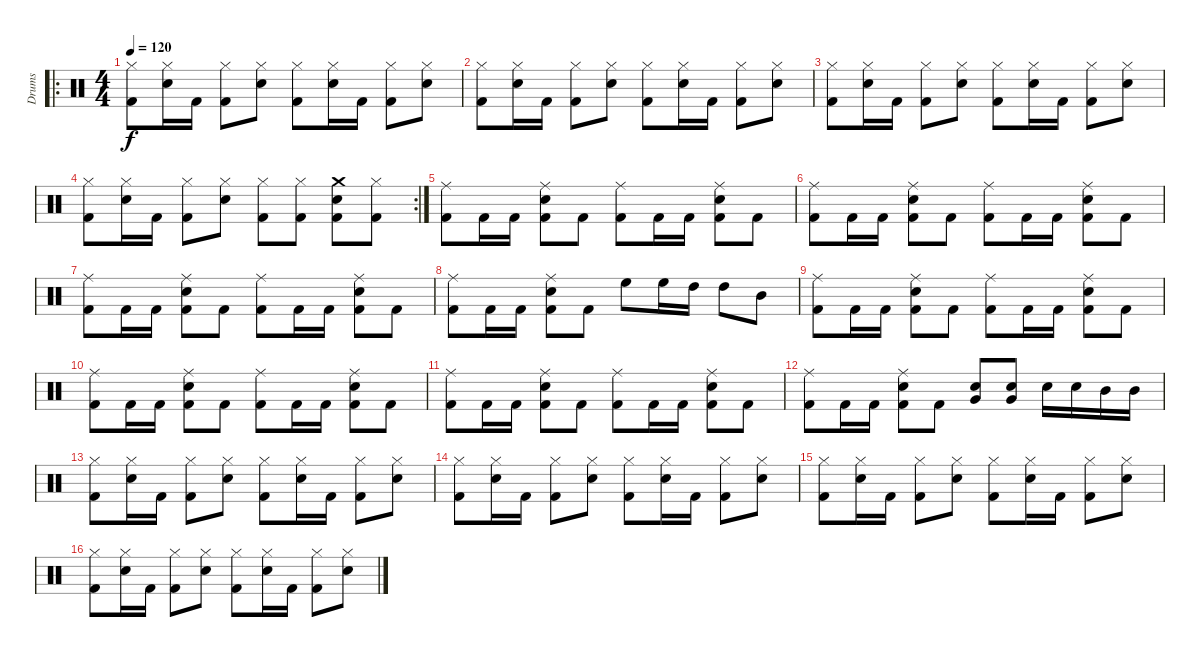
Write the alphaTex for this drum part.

\track ("Drums" "Drums") {instrument percussion}
\staff {score}
\articulation defaults
\ro
\ts (4 4)
\tempo 120
\clef neutral
\ks c
("Kick (hit) 2" "Hi-Hat (closed)").8{dy f} ("Electric Snare (hit)" "Hi-Hat (closed)").16 "Kick (hit) 2".16 ("Kick (hit) 2" "Hi-Hat (closed)").8 ("Electric Snare (hit)" "Hi-Hat (closed)").8 ("Kick (hit) 2" "Hi-Hat (closed)").8 ("Electric Snare (hit)" "Hi-Hat (closed)").16 "Kick (hit) 2".16 ("Kick (hit) 2" "Hi-Hat (closed)").8 ("Electric Snare (hit)" "Hi-Hat (closed)").8 |
("Kick (hit) 2" "Hi-Hat (closed)").8 ("Electric Snare (hit)" "Hi-Hat (closed)").16 "Kick (hit) 2".16 ("Kick (hit) 2" "Hi-Hat (closed)").8 ("Electric Snare (hit)" "Hi-Hat (closed)").8 ("Kick (hit) 2" "Hi-Hat (closed)").8 ("Electric Snare (hit)" "Hi-Hat (closed)").16 "Kick (hit) 2".16 ("Kick (hit) 2" "Hi-Hat (closed)").8 ("Electric Snare (hit)" "Hi-Hat (closed)").8 |
("Kick (hit) 2" "Hi-Hat (closed)").8 ("Electric Snare (hit)" "Hi-Hat (closed)").16 "Kick (hit) 2".16 ("Kick (hit) 2" "Hi-Hat (closed)").8 ("Electric Snare (hit)" "Hi-Hat (closed)").8 ("Kick (hit) 2" "Hi-Hat (closed)").8 ("Electric Snare (hit)" "Hi-Hat (closed)").16 "Kick (hit) 2".16 ("Kick (hit) 2" "Hi-Hat (closed)").8 ("Electric Snare (hit)" "Hi-Hat (closed)").8 |
\rc 2
("Kick (hit) 2" "Hi-Hat (closed)").8 ("Electric Snare (hit)" "Hi-Hat (closed)").16 "Kick (hit) 2".16 ("Kick (hit) 2" "Hi-Hat (closed)").8 ("Electric Snare (hit)" "Hi-Hat (closed)").8 ("Kick (hit) 2" "Hi-Hat (closed)").8 ("Kick (hit) 2" "Hi-Hat (closed)").8 ("Kick (hit) 2" "Electric Snare (hit)" "Crash medium (hit)").8 ("Kick (hit) 2" "Hi-Hat (closed)").8 |
("Kick (hit) 2" "Ride (middle)").8 "Kick (hit) 2".16 "Kick (hit) 2".16 ("Kick (hit) 2" "Electric Snare (hit)" "Ride (middle)").8 "Kick (hit) 2".8 ("Kick (hit) 2" "Ride (middle)").8 "Kick (hit) 2".16 "Kick (hit) 2".16 ("Kick (hit) 2" "Electric Snare (hit)" "Ride (middle)").8 "Kick (hit) 2".8 |
("Kick (hit) 2" "Ride (middle)").8 "Kick (hit) 2".16 "Kick (hit) 2".16 ("Kick (hit) 2" "Electric Snare (hit)" "Ride (middle)").8 "Kick (hit) 2".8 ("Kick (hit) 2" "Ride (middle)").8 "Kick (hit) 2".16 "Kick (hit) 2".16 ("Kick (hit) 2" "Electric Snare (hit)" "Ride (middle)").8 "Kick (hit) 2".8 |
("Kick (hit) 2" "Ride (middle)").8 "Kick (hit) 2".16 "Kick (hit) 2".16 ("Kick (hit) 2" "Electric Snare (hit)" "Ride (middle)").8 "Kick (hit) 2".8 ("Kick (hit) 2" "Ride (middle)").8 "Kick (hit) 2".16 "Kick (hit) 2".16 ("Kick (hit) 2" "Electric Snare (hit)" "Ride (middle)").8 "Kick (hit) 2".8 |
("Kick (hit) 2" "Ride (middle)").8 "Kick (hit) 2".16 "Kick (hit) 2".16 ("Kick (hit) 2" "Electric Snare (hit)" "Ride (middle)").8 "Kick (hit) 2".8 "High Floor Tom (hit)".8 "High Floor Tom (hit)".16 "High Tom (hit)".16 "High Tom (hit)".8 "Mid Tom (hit)".8 |
("Kick (hit) 2" "Ride (middle)").8 "Kick (hit) 2".16 "Kick (hit) 2".16 ("Kick (hit) 2" "Electric Snare (hit)" "Ride (middle)").8 "Kick (hit) 2".8 ("Kick (hit) 2" "Ride (middle)").8 "Kick (hit) 2".16 "Kick (hit) 2".16 ("Kick (hit) 2" "Electric Snare (hit)" "Ride (middle)").8 "Kick (hit) 2".8 |
("Kick (hit) 2" "Ride (middle)").8 "Kick (hit) 2".16 "Kick (hit) 2".16 ("Kick (hit) 2" "Electric Snare (hit)" "Ride (middle)").8 "Kick (hit) 2".8 ("Kick (hit) 2" "Ride (middle)").8 "Kick (hit) 2".16 "Kick (hit) 2".16 ("Kick (hit) 2" "Electric Snare (hit)" "Ride (middle)").8 "Kick (hit) 2".8 |
("Kick (hit) 2" "Ride (middle)").8 "Kick (hit) 2".16 "Kick (hit) 2".16 ("Kick (hit) 2" "Electric Snare (hit)" "Ride (middle)").8 "Kick (hit) 2".8 ("Kick (hit) 2" "Ride (middle)").8 "Kick (hit) 2".16 "Kick (hit) 2".16 ("Kick (hit) 2" "Electric Snare (hit)" "Ride (middle)").8 "Kick (hit) 2".8 |
("Kick (hit) 2" "Ride (middle)").8 "Kick (hit) 2".16 "Kick (hit) 2".16 ("Kick (hit) 2" "Electric Snare (hit)" "Ride (middle)").8 "Kick (hit) 2".8 ("Very Low Tom (hit)" "Electric Snare (hit)").8 ("Very Low Tom (hit)" "Electric Snare (hit)").8 "Electric Snare (hit)".16 "Electric Snare (hit)".16 "Mid Tom (hit)".16 "Mid Tom (hit)".16 |
("Kick (hit) 2" "Hi-Hat (closed)").8 ("Electric Snare (hit)" "Hi-Hat (closed)").16 "Kick (hit) 2".16 ("Kick (hit) 2" "Hi-Hat (closed)").8 ("Electric Snare (hit)" "Hi-Hat (closed)").8 ("Kick (hit) 2" "Hi-Hat (closed)").8 ("Electric Snare (hit)" "Hi-Hat (closed)").16 "Kick (hit) 2".16 ("Kick (hit) 2" "Hi-Hat (closed)").8 ("Electric Snare (hit)" "Hi-Hat (closed)").8 |
("Kick (hit) 2" "Hi-Hat (closed)").8 ("Electric Snare (hit)" "Hi-Hat (closed)").16 "Kick (hit) 2".16 ("Kick (hit) 2" "Hi-Hat (closed)").8 ("Electric Snare (hit)" "Hi-Hat (closed)").8 ("Kick (hit) 2" "Hi-Hat (closed)").8 ("Electric Snare (hit)" "Hi-Hat (closed)").16 "Kick (hit) 2".16 ("Kick (hit) 2" "Hi-Hat (closed)").8 ("Electric Snare (hit)" "Hi-Hat (closed)").8 |
("Kick (hit) 2" "Hi-Hat (closed)").8 ("Electric Snare (hit)" "Hi-Hat (closed)").16 "Kick (hit) 2".16 ("Kick (hit) 2" "Hi-Hat (closed)").8 ("Electric Snare (hit)" "Hi-Hat (closed)").8 ("Kick (hit) 2" "Hi-Hat (closed)").8 ("Electric Snare (hit)" "Hi-Hat (closed)").16 "Kick (hit) 2".16 ("Kick (hit) 2" "Hi-Hat (closed)").8 ("Electric Snare (hit)" "Hi-Hat (closed)").8 |
("Kick (hit) 2" "Hi-Hat (closed)").8 ("Electric Snare (hit)" "Hi-Hat (closed)").16 "Kick (hit) 2".16 ("Kick (hit) 2" "Hi-Hat (closed)").8 ("Electric Snare (hit)" "Hi-Hat (closed)").8 ("Kick (hit) 2" "Hi-Hat (closed)").8 ("Electric Snare (hit)" "Hi-Hat (closed)").16 "Kick (hit) 2".16 ("Kick (hit) 2" "Hi-Hat (closed)").8 ("Electric Snare (hit)" "Hi-Hat (closed)").8
